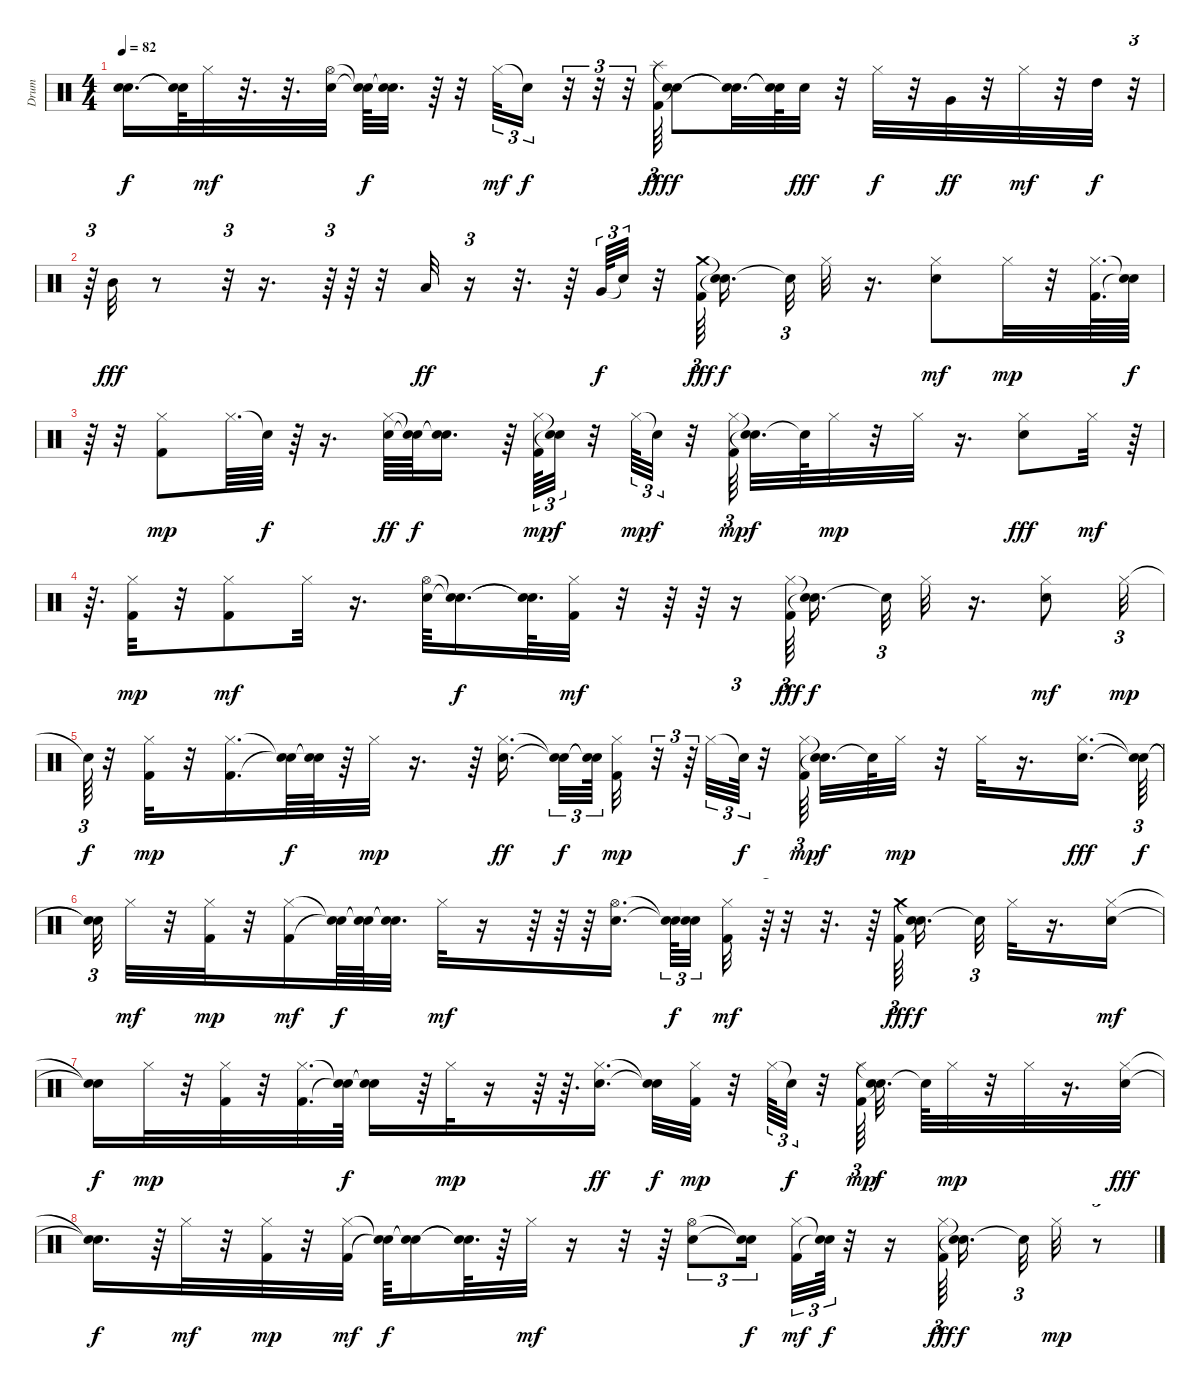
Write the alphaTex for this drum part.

\track ("Drum" "Drum") {instrument percussion}
\staff {score}
\articulation defaults
\ts (4 4)
\tempo 82
\clef neutral
\ks c
("Snare (hit)"{t} "Snare (hit)"{t}).16{d dy f} ("Snare (hit)"{t} "Snare (hit)"{t}).64 "Hi-Hat (closed)".32{dy mf} r.32{d} r.32{d} ("Electric Snare (hit)" "Hi-Hat (open)").32 ("Snare (hit)"{t} "Snare (hit)"{t}).64{dy f} ("Snare (hit)"{t} "Snare (hit)"{t}).32{d} r.64 r.32 "Hi-Hat (closed)".32{tu (3 2) dy mf} "Snare (hit)"{t}.16{tu (3 2) dy f} r.32{tu (3 2)} r.32{tu (3 2)} r.32{tu (3 2)} ("Kick (hit) 2" "Splash (hit)").64{tu (3 2) dy fff} ("Snare (hit)"{t} "Snare (hit)"{t}).8{dy f} ("Snare (hit)"{t} "Snare (hit)"{t}).32{d} ("Snare (hit)"{t} "Snare (hit)"{t}).64 "Electric Snare (hit)".32{dy fff} r.32 "Hi-Hat (closed)".32{dy f} r.32 "Very Low Tom (hit)".32{dy ff} r.32 "Hi-Hat (closed)".32{dy mf} r.32 "High Tom (hit)".32{dy f} r.32{tu (3 2)} |
r.64{tu (3 2)} "Mid Tom (hit)".32{dy fff} r.8 r.32{tu (3 2)} r.16{d} r.64{tu (3 2)} r.64 r.32 "Low Tom (hit)".32{dy ff} r.16{tu (3 2)} r.32{d} r.64 "Very Low Tom (hit)".64{tu (3 2) dy f} "Snare (hit)"{t}.32{tu (3 2)} r.32 ("Kick (hit) 2" "Crash medium (hit)").64{tu (3 2) dy fff beam splitsecondary} ("Snare (hit)"{t} "Snare (hit)"{t}).16{d dy f beam splitsecondary} "Snare (hit)"{t}.32{tu (3 2)} "Hi-Hat (closed)".32 r.16{d} ("Electric Snare (hit)" "Hi-Hat (closed)").8{dy mf} "Hi-Hat (closed)".32{dy mp} r.32 ("Kick (hit) 2" "Hi-Hat (closed)").64{d} ("Snare (hit)"{t} "Snare (hit)"{t}).64{dy f} |
r.64 r.32 ("Kick (hit) 2" "Hi-Hat (closed)").8{dy mp} "Hi-Hat (closed)".64{d} "Snare (hit)"{t}.64{dy f} r.64 r.16{d} ("Electric Snare (hit)" "Hi-Hat (closed)").64{dy ff} ("Snare (hit)"{t} "Snare (hit)"{t}).64{dy f} ("Snare (hit)"{t} "Snare (hit)"{t}).16{d} r.64 ("Kick (hit) 2" "Hi-Hat (closed)").64{tu (3 2) dy mp} ("Snare (hit)"{t} "Snare (hit)"{t}).32{tu (3 2) dy f} r.32 "Hi-Hat (closed)".64{tu (3 2) dy mp} "Snare (hit)"{t}.32{tu (3 2) dy f} r.32 ("Kick (hit) 2" "Hi-Hat (closed)").64{tu (3 2) dy mp beam splitsecondary} ("Snare (hit)"{t} "Snare (hit)"{t}).32{d dy f} "Snare (hit)"{t}.64 "Hi-Hat (closed)".32{dy mp} r.32 "Hi-Hat (closed)".32 r.16{d} ("Electric Snare (hit)" "Hi-Hat (closed)").8{dy fff} "Hi-Hat (closed)".32{dy mf} r.64 |
r.64{d} ("Kick (hit) 2" "Hi-Hat (closed)").32{dy mp} r.32 ("Kick (hit) 2" "Hi-Hat (closed)").8{dy mf} "Hi-Hat (closed)".32 r.16{d} ("Electric Snare (hit)" "Hi-Hat (open)").64 ("Snare (hit)"{t} "Snare (hit)"{t}).16{d dy f} ("Snare (hit)"{t} "Snare (hit)"{t}).64{d} ("Kick (hit) 2" "Hi-Hat (closed)").32{dy mf} r.32 r.64 r.64 r.16{tu (3 2)} ("Kick (hit) 2" "Hi-Hat (closed)").64{tu (3 2) dy fff beam splitsecondary} ("Snare (hit)"{t} "Snare (hit)"{t}).16{d dy f beam splitsecondary} "Snare (hit)"{t}.32{tu (3 2)} "Hi-Hat (closed)".32 r.16{d} ("Electric Snare (hit)" "Hi-Hat (closed)").8{dy mf} "Hi-Hat (closed)".32{tu (3 2) dy mp} |
"Snare (hit)"{t}.64{tu (3 2) dy f} r.32 ("Kick (hit) 2" "Hi-Hat (closed)").32{dy mp} r.32 ("Kick (hit) 2" "Hi-Hat (closed)").16{d} ("Snare (hit)"{t} "Snare (hit)"{t}).64{dy f} ("Snare (hit)"{t} "Snare (hit)"{t}).64 r.64 "Hi-Hat (closed)".32{dy mp} r.16{d} r.64 ("Electric Snare (hit)" "Hi-Hat (closed)").16{d dy ff} ("Snare (hit)"{t} "Snare (hit)"{t}).32{tu (3 2) dy f} ("Snare (hit)"{t} "Snare (hit)"{t}).64{tu (3 2)} ("Kick (hit) 2" "Hi-Hat (closed)").32{dy mp} r.32{tu (3 2)} r.64{tu (3 2)} "Hi-Hat (closed)".32{tu (3 2)} "Snare (hit)"{t}.64{tu (3 2) dy f} r.32 ("Kick (hit) 2" "Hi-Hat (closed)").64{tu (3 2) dy mp beam splitsecondary} ("Snare (hit)"{t} "Snare (hit)"{t}).32{d dy f} "Snare (hit)"{t}.64 "Hi-Hat (closed)".32{dy mp} r.32 "Hi-Hat (closed)".32 r.16{d} ("Electric Snare (hit)" "Hi-Hat (closed)").16{d dy fff} ("Snare (hit)"{t} "Snare (hit)"{t}).64{tu (3 2) dy f} |
("Snare (hit)"{t} "Snare (hit)"{t}).32{tu (3 2)} "Hi-Hat (closed)".32{dy mf} r.32 ("Kick (hit) 2" "Hi-Hat (closed)").32{dy mp} r.32 ("Kick (hit) 2" "Hi-Hat (closed)").16{dy mf} ("Snare (hit)"{t} "Snare (hit)"{t}).64{dy f} ("Snare (hit)"{t} "Snare (hit)"{t}).64 ("Snare (hit)"{t} "Snare (hit)"{t}).32{d} "Hi-Hat (closed)".32{dy mf} r.16 r.64 r.64 r.64 ("Electric Snare (hit)" "Hi-Hat (open)").16{d} ("Snare (hit)"{t} "Snare (hit)"{t}).64{tu (3 2) dy f} ("Snare (hit)"{t} "Snare (hit)"{t}).32{tu (3 2) beam splitsecondary} ("Kick (hit) 2" "Hi-Hat (closed)").32{dy mf} r.64{tu (3 2)} r.32 r.32{d} r.64 ("Kick (hit) 2" "Crash medium (hit)").64{tu (3 2) dy fff} ("Snare (hit)"{t} "Snare (hit)"{t}).16{d dy f} "Snare (hit)"{t}.32{tu (3 2)} "Hi-Hat (closed)".32 r.16{d} ("Electric Snare (hit)" "Hi-Hat (closed)").16{dy mf} |
("Snare (hit)"{t} "Snare (hit)"{t}).16{dy f} "Hi-Hat (closed)".32{dy mp} r.32 ("Kick (hit) 2" "Hi-Hat (closed)").32 r.32 ("Kick (hit) 2" "Hi-Hat (closed)").32{d} ("Snare (hit)"{t} "Snare (hit)"{t}).64{dy f} ("Snare (hit)"{t} "Snare (hit)"{t}).16 r.64 "Hi-Hat (closed)".32{dy mp} r.16 r.64 r.64{d} ("Electric Snare (hit)" "Hi-Hat (closed)").16{d dy ff} ("Snare (hit)"{t} "Snare (hit)"{t}).32{dy f} ("Kick (hit) 2" "Hi-Hat (closed)").32{dy mp} r.32 "Hi-Hat (closed)".64{tu (3 2)} "Snare (hit)"{t}.32{tu (3 2) dy f} r.32 ("Kick (hit) 2" "Hi-Hat (closed)").64{tu (3 2) dy mp} ("Snare (hit)"{t} "Snare (hit)"{t}).32{d dy f} "Snare (hit)"{t}.64 "Hi-Hat (closed)".32{dy mp} r.32 "Hi-Hat (closed)".32 r.16{d} ("Electric Snare (hit)" "Hi-Hat (closed)").32{dy fff} |
("Snare (hit)"{t} "Snare (hit)"{t}).16{d dy f} r.64 "Hi-Hat (closed)".32{dy mf} r.32 ("Kick (hit) 2" "Hi-Hat (closed)").32{dy mp} r.32 ("Kick (hit) 2" "Hi-Hat (closed)").32{dy mf} ("Snare (hit)"{t} "Snare (hit)"{t}).64{dy f} ("Snare (hit)"{t} "Snare (hit)"{t}).16 ("Snare (hit)"{t} "Snare (hit)"{t}).64{d} r.64 "Hi-Hat (closed)".32{dy mf} r.16 r.32 r.64 ("Electric Snare (hit)" "Hi-Hat (open)").8{tu (3 2)} ("Snare (hit)"{t} "Snare (hit)"{t}).16{tu (3 2) dy f beam splitsecondary} ("Kick (hit) 2" "Hi-Hat (closed)").32{tu (3 2) dy mf} ("Snare (hit)"{t} "Snare (hit)"{t}).64{tu (3 2) dy f} r.32 r.16 ("Kick (hit) 2" "Hi-Hat (closed)").64{tu (3 2) dy fff beam splitsecondary} ("Snare (hit)"{t} "Snare (hit)"{t}).16{d dy f beam splitsecondary} "Snare (hit)"{t}.32{tu (3 2)} "Hi-Hat (closed)".32{dy mp} r.8{tu (3 2)}
